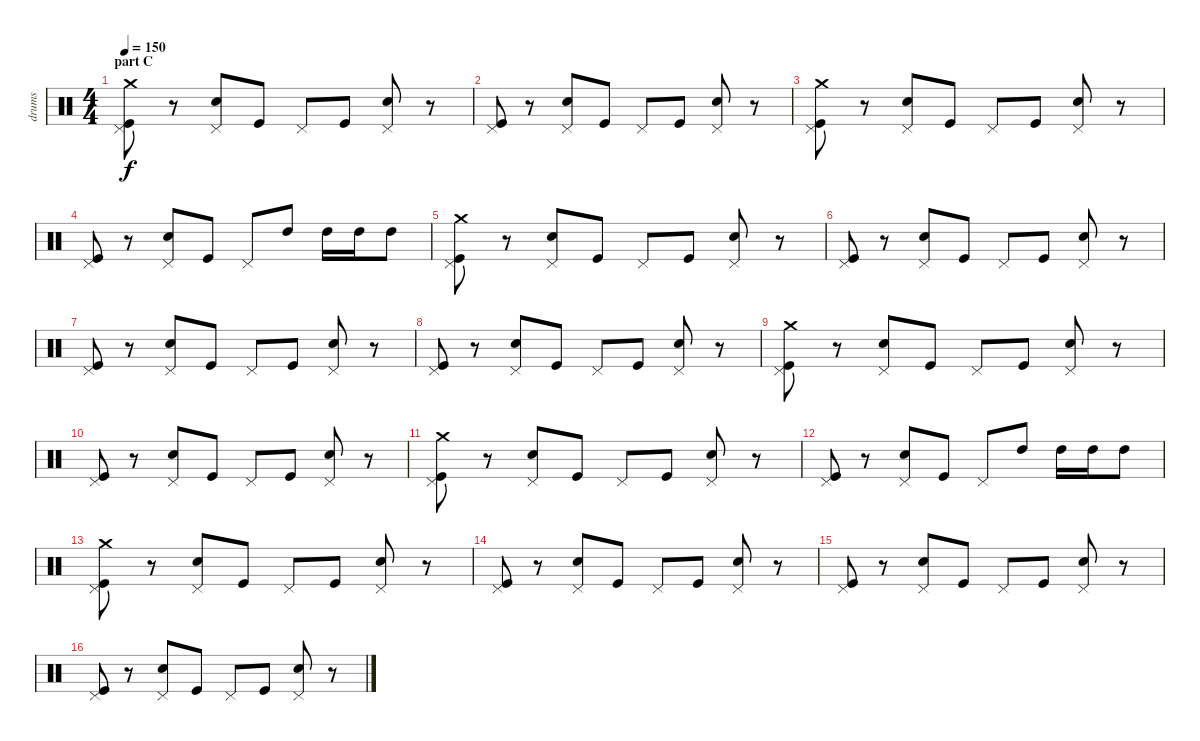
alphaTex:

\track ("drums" "drums") {instrument percussion}
\staff {score}
\articulation defaults
\ts (4 4)
\section ("" "part C")
\tempo 150
\clef neutral
\ks c
("Pedal Hi-Hat (hit)" "Kick (hit)" "Crash medium (hit)").8{dy f} r.8 ("Pedal Hi-Hat (hit)" "Snare (hit) 2").8 "Kick (hit)".8 "Pedal Hi-Hat (hit)".8 "Kick (hit)".8 ("Pedal Hi-Hat (hit)" "Snare (hit) 2").8 r.8 |
("Pedal Hi-Hat (hit)" "Kick (hit)").8 r.8 ("Pedal Hi-Hat (hit)" "Snare (hit) 2").8 "Kick (hit)".8 "Pedal Hi-Hat (hit)".8 "Kick (hit)".8 ("Pedal Hi-Hat (hit)" "Snare (hit) 2").8 r.8 |
("Pedal Hi-Hat (hit)" "Kick (hit)" "Crash medium (hit)").8 r.8 ("Pedal Hi-Hat (hit)" "Snare (hit) 2").8 "Kick (hit)".8 "Pedal Hi-Hat (hit)".8 "Kick (hit)".8 ("Pedal Hi-Hat (hit)" "Snare (hit) 2").8 r.8 |
("Pedal Hi-Hat (hit)" "Kick (hit)").8 r.8 ("Pedal Hi-Hat (hit)" "Snare (hit) 2").8 "Kick (hit)".8 "Pedal Hi-Hat (hit)".8 "High Tom (hit)".8 "High Tom (hit)".16 "High Tom (hit)".16 "High Tom (hit)".8 |
("Pedal Hi-Hat (hit)" "Kick (hit)" "Crash medium (hit)").8 r.8 ("Pedal Hi-Hat (hit)" "Snare (hit) 2").8 "Kick (hit)".8 "Pedal Hi-Hat (hit)".8 "Kick (hit)".8 ("Pedal Hi-Hat (hit)" "Snare (hit) 2").8 r.8 |
("Pedal Hi-Hat (hit)" "Kick (hit)").8 r.8 ("Pedal Hi-Hat (hit)" "Snare (hit) 2").8 "Kick (hit)".8 "Pedal Hi-Hat (hit)".8 "Kick (hit)".8 ("Pedal Hi-Hat (hit)" "Snare (hit) 2").8 r.8 |
("Pedal Hi-Hat (hit)" "Kick (hit)").8 r.8 ("Pedal Hi-Hat (hit)" "Snare (hit) 2").8 "Kick (hit)".8 "Pedal Hi-Hat (hit)".8 "Kick (hit)".8 ("Pedal Hi-Hat (hit)" "Snare (hit) 2").8 r.8 |
("Pedal Hi-Hat (hit)" "Kick (hit)").8 r.8 ("Pedal Hi-Hat (hit)" "Snare (hit) 2").8 "Kick (hit)".8 "Pedal Hi-Hat (hit)".8 "Kick (hit)".8 ("Pedal Hi-Hat (hit)" "Snare (hit) 2").8 r.8 |
("Pedal Hi-Hat (hit)" "Kick (hit)" "Crash medium (hit)").8 r.8 ("Pedal Hi-Hat (hit)" "Snare (hit) 2").8 "Kick (hit)".8 "Pedal Hi-Hat (hit)".8 "Kick (hit)".8 ("Pedal Hi-Hat (hit)" "Snare (hit) 2").8 r.8 |
("Pedal Hi-Hat (hit)" "Kick (hit)").8 r.8 ("Pedal Hi-Hat (hit)" "Snare (hit) 2").8 "Kick (hit)".8 "Pedal Hi-Hat (hit)".8 "Kick (hit)".8 ("Pedal Hi-Hat (hit)" "Snare (hit) 2").8 r.8 |
("Pedal Hi-Hat (hit)" "Kick (hit)" "Crash medium (hit)").8 r.8 ("Pedal Hi-Hat (hit)" "Snare (hit) 2").8 "Kick (hit)".8 "Pedal Hi-Hat (hit)".8 "Kick (hit)".8 ("Pedal Hi-Hat (hit)" "Snare (hit) 2").8 r.8 |
("Pedal Hi-Hat (hit)" "Kick (hit)").8 r.8 ("Pedal Hi-Hat (hit)" "Snare (hit) 2").8 "Kick (hit)".8 "Pedal Hi-Hat (hit)".8 "High Tom (hit)".8 "High Tom (hit)".16 "High Tom (hit)".16 "High Tom (hit)".8 |
("Pedal Hi-Hat (hit)" "Kick (hit)" "Crash medium (hit)").8 r.8 ("Pedal Hi-Hat (hit)" "Snare (hit) 2").8 "Kick (hit)".8 "Pedal Hi-Hat (hit)".8 "Kick (hit)".8 ("Pedal Hi-Hat (hit)" "Snare (hit) 2").8 r.8 |
("Pedal Hi-Hat (hit)" "Kick (hit)").8 r.8 ("Pedal Hi-Hat (hit)" "Snare (hit) 2").8 "Kick (hit)".8 "Pedal Hi-Hat (hit)".8 "Kick (hit)".8 ("Pedal Hi-Hat (hit)" "Snare (hit) 2").8 r.8 |
("Pedal Hi-Hat (hit)" "Kick (hit)").8 r.8 ("Pedal Hi-Hat (hit)" "Snare (hit) 2").8 "Kick (hit)".8 "Pedal Hi-Hat (hit)".8 "Kick (hit)".8 ("Pedal Hi-Hat (hit)" "Snare (hit) 2").8 r.8 |
("Pedal Hi-Hat (hit)" "Kick (hit)").8 r.8 ("Pedal Hi-Hat (hit)" "Snare (hit) 2").8 "Kick (hit)".8 "Pedal Hi-Hat (hit)".8 "Kick (hit)".8 ("Pedal Hi-Hat (hit)" "Snare (hit) 2").8 r.8
